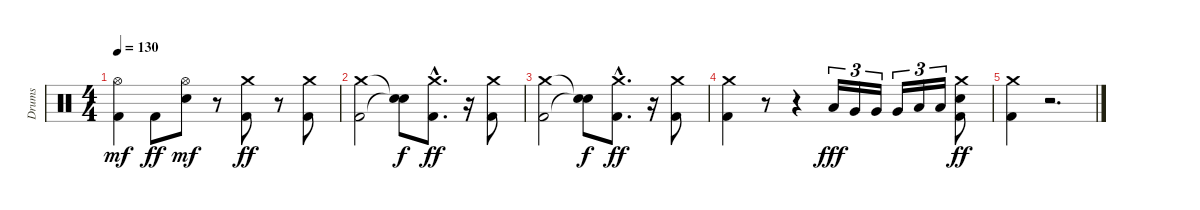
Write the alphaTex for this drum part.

\track ("Drums" "Drums") {instrument percussion}
\staff {score}
\articulation defaults
\ts (4 4)
\tempo 130
\clef neutral
\ks c
("Kick (hit) 2" "Hi-Hat (open)").4{dy mf} "Kick (hit) 2".8{dy ff} ("Hi-Hat (open)" "Snare (hit) 2").8{dy mf} r.8 ("Kick (hit) 2" "Crash medium (hit)").8{dy ff} r.8 ("Kick (hit) 2" "Crash medium (hit)").8 |
("Kick (hit) 2" "Crash medium (hit)").2 ("Snare (hit)"{t} "Snare (hit)"{t}).8{dy f} ("Kick (hit) 2"{hac} "Crash medium (hit)"{hac}).8{d dy ff} r.16 ("Kick (hit) 2" "Crash medium (hit)").8 |
("Kick (hit) 2" "Crash medium (hit)").2 ("Snare (hit)"{t} "Snare (hit)"{t}).8{dy f} ("Kick (hit) 2"{hac} "Crash medium (hit)"{hac}).8{d dy ff} r.16 ("Kick (hit) 2" "Crash medium (hit)").8 |
("Kick (hit) 2" "Crash medium (hit)").4 r.8 r.4 "Low Tom (hit)".16{tu (3 2) dy fff} "Very Low Tom (hit)".16{tu (3 2)} "Very Low Tom (hit)".16{tu (3 2)} "Very Low Tom (hit)".16{tu (3 2)} "Low Floor Tom (hit)".16{tu (3 2)} "Low Floor Tom (hit)".16{tu (3 2)} ("Kick (hit) 2" "Snare (hit) 2" "Crash medium (hit)").8{dy ff} |
("Kick (hit) 2" "Crash medium (hit)").4 r.2{d}
